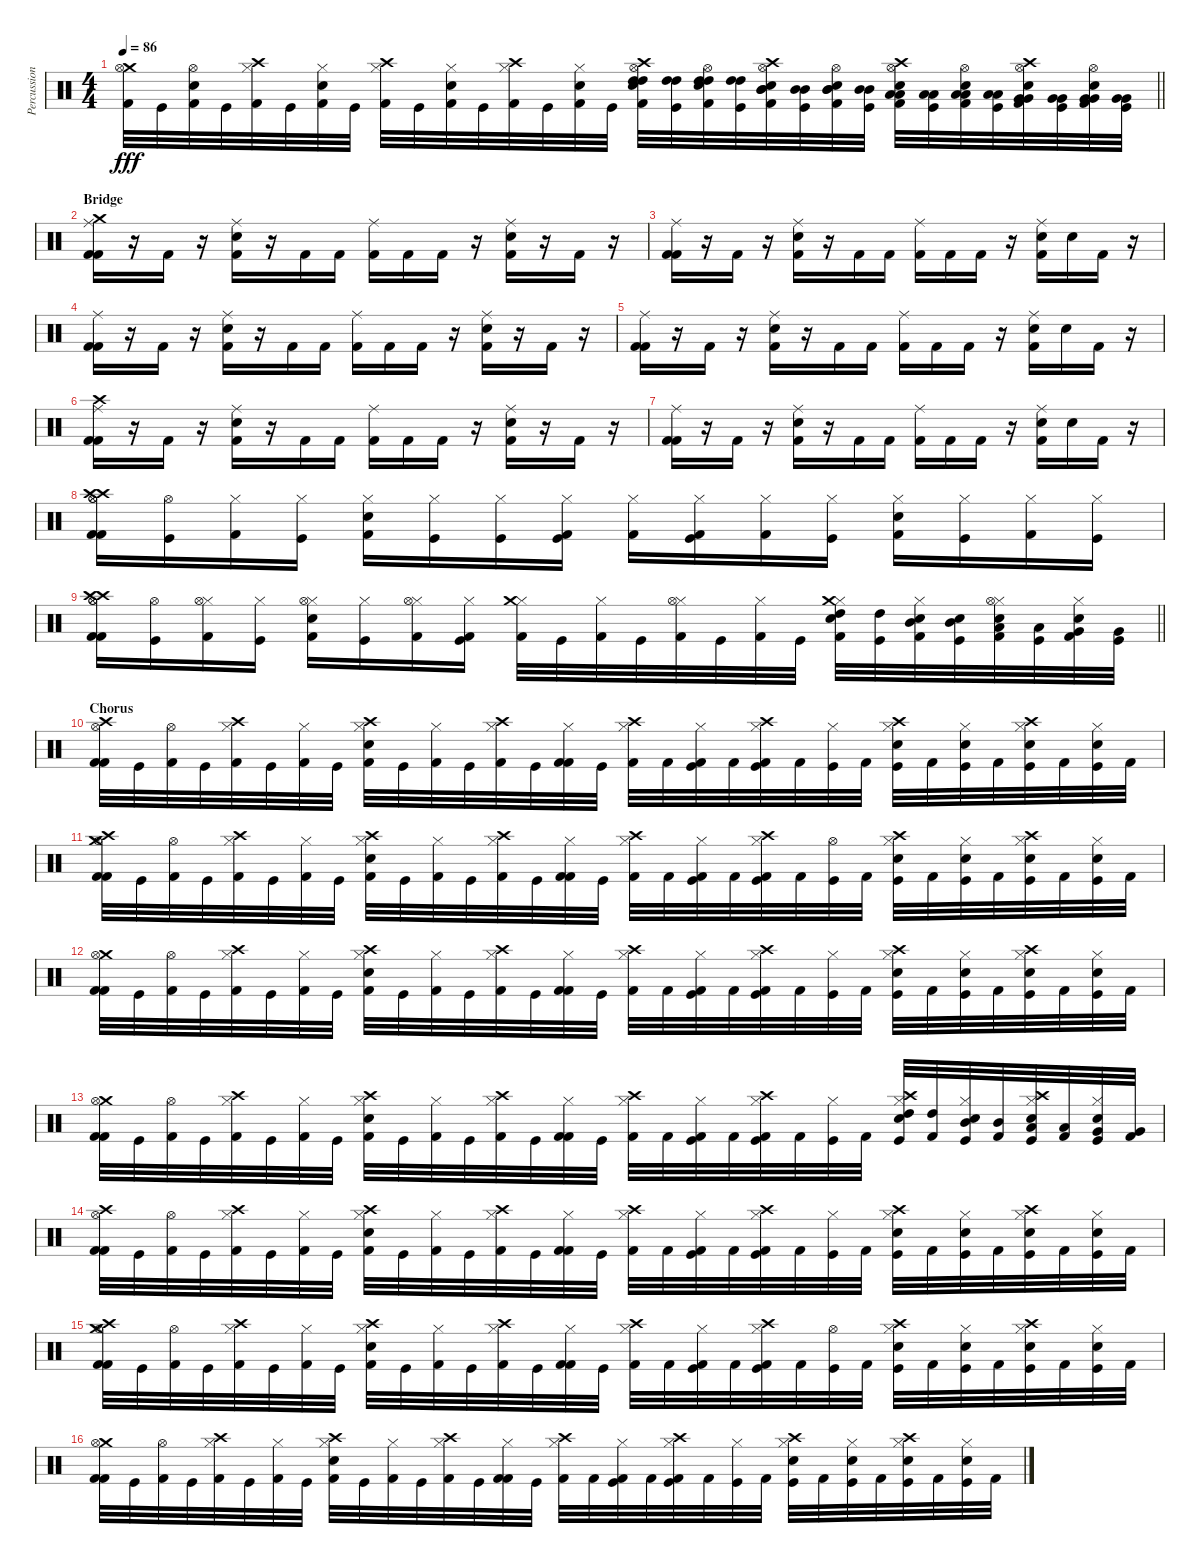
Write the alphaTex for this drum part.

\track ("Percussion" "Percussion") {instrument percussion}
\staff {score}
\articulation defaults
\ts (4 4)
\tempo 86
\clef neutral
\barLineRight lightlight
\ks c
("Crash medium (hit)" "Hi-Hat (open)" "Kick (hit) 2").32{dy fff} "Kick (hit)".32 ("Hi-Hat (open)" "Electric Snare (hit)" "Kick (hit) 2").32 "Kick (hit)".32 ("Crash high (hit)" "Hi-Hat (closed)" "Kick (hit) 2").32 "Kick (hit)".32 ("Hi-Hat (closed)" "Electric Snare (hit)" "Kick (hit) 2").32 "Kick (hit)".32 ("Crash high (hit)" "Hi-Hat (closed)" "Kick (hit) 2").32 "Kick (hit)".32 ("Hi-Hat (closed)" "Electric Snare (hit)" "Kick (hit) 2").32 "Kick (hit)".32 ("Crash high (hit)" "Hi-Hat (closed)" "Kick (hit) 2").32 "Kick (hit)".32 ("Hi-Hat (closed)" "Electric Snare (hit)" "Kick (hit) 2").32 "Kick (hit)".32 ("Crash high (hit)" "Hi-Hat (open)" "High Tom (hit)" "High Tom (hit)" "Electric Snare (hit)" "Kick (hit) 2").32 ("High Tom (hit)" "High Tom (hit)" "Kick (hit)").32 ("Hi-Hat (open)" "High Tom (hit)" "High Tom (hit)" "Electric Snare (hit)" "Kick (hit) 2").32 ("High Tom (hit)" "High Tom (hit)" "Kick (hit)").32 ("Crash high (hit)" "Hi-Hat (open)" "Mid Tom (hit)" "Mid Tom (hit)" "Electric Snare (hit)" "Kick (hit) 2").32 ("Mid Tom (hit)" "Mid Tom (hit)" "Kick (hit)").32 ("Hi-Hat (open)" "Mid Tom (hit)" "Mid Tom (hit)" "Electric Snare (hit)" "Kick (hit) 2").32 ("Mid Tom (hit)" "Mid Tom (hit)" "Kick (hit)").32 ("Crash high (hit)" "Hi-Hat (open)" "Low Tom (hit)" "Low Tom (hit)" "Electric Snare (hit)" "Kick (hit) 2").32 ("Low Tom (hit)" "Low Tom (hit)" "Kick (hit)").32 ("Hi-Hat (open)" "Low Tom (hit)" "Low Tom (hit)" "Electric Snare (hit)" "Kick (hit) 2").32 ("Low Tom (hit)" "Low Tom (hit)" "Kick (hit)").32 ("Crash high (hit)" "Hi-Hat (open)" "Very Low Tom (hit)" "Very Low Tom (hit)" "Electric Snare (hit)" "Kick (hit) 2").32 ("Very Low Tom (hit)" "Very Low Tom (hit)" "Kick (hit)").32 ("Hi-Hat (open)" "Very Low Tom (hit)" "Very Low Tom (hit)" "Electric Snare (hit)" "Kick (hit) 2").32 ("Very Low Tom (hit)" "Very Low Tom (hit)" "Kick (hit)").32 |
\section ("" "Bridge")
("Crash medium (hit)" "Ride (middle)" "Kick (hit) 2" "Kick (hit) 2").16 r.16 "Kick (hit) 2".16 r.16 ("Ride (middle)" "Electric Snare (hit)" "Kick (hit) 2").16 r.16 "Kick (hit) 2".16 "Kick (hit) 2".16 ("Ride (middle)" "Kick (hit) 2").16 "Kick (hit) 2".16 "Kick (hit) 2".16 r.16 ("Ride (middle)" "Electric Snare (hit)" "Kick (hit) 2").16 r.16 "Kick (hit) 2".16 r.16 |
("Ride (middle)" "Kick (hit) 2" "Kick (hit) 2").16 r.16 "Kick (hit) 2".16 r.16 ("Ride (middle)" "Electric Snare (hit)" "Kick (hit) 2").16 r.16 "Kick (hit) 2".16 "Kick (hit) 2".16 ("Ride (middle)" "Kick (hit) 2").16 "Kick (hit) 2".16 "Kick (hit) 2".16 r.16 ("Ride (middle)" "Electric Snare (hit)" "Kick (hit) 2").16 "Electric Snare (hit)".16 "Kick (hit) 2".16 r.16 |
("Ride (middle)" "Kick (hit) 2" "Kick (hit) 2").16 r.16 "Kick (hit) 2".16 r.16 ("Ride (middle)" "Electric Snare (hit)" "Kick (hit) 2").16 r.16 "Kick (hit) 2".16 "Kick (hit) 2".16 ("Ride (middle)" "Kick (hit) 2").16 "Kick (hit) 2".16 "Kick (hit) 2".16 r.16 ("Ride (middle)" "Electric Snare (hit)" "Kick (hit) 2").16 r.16 "Kick (hit) 2".16 r.16 |
("Ride (middle)" "Kick (hit) 2" "Kick (hit) 2").16 r.16 "Kick (hit) 2".16 r.16 ("Ride (middle)" "Electric Snare (hit)" "Kick (hit) 2").16 r.16 "Kick (hit) 2".16 "Kick (hit) 2".16 ("Ride (middle)" "Kick (hit) 2").16 "Kick (hit) 2".16 "Kick (hit) 2".16 r.16 ("Ride (middle)" "Electric Snare (hit)" "Kick (hit) 2").16 "Electric Snare (hit)".16 "Kick (hit) 2".16 r.16 |
("Crash high (hit)" "Ride (middle)" "Kick (hit) 2" "Kick (hit) 2").16 r.16 "Kick (hit) 2".16 r.16 ("Ride (middle)" "Electric Snare (hit)" "Kick (hit) 2").16 r.16 "Kick (hit) 2".16 "Kick (hit) 2".16 ("Ride (middle)" "Kick (hit) 2").16 "Kick (hit) 2".16 "Kick (hit) 2".16 r.16 ("Ride (middle)" "Electric Snare (hit)" "Kick (hit) 2").16 r.16 "Kick (hit) 2".16 r.16 |
("Ride (middle)" "Kick (hit) 2" "Kick (hit) 2").16 r.16 "Kick (hit) 2".16 r.16 ("Ride (middle)" "Electric Snare (hit)" "Kick (hit) 2").16 r.16 "Kick (hit) 2".16 "Kick (hit) 2".16 ("Ride (middle)" "Kick (hit) 2").16 "Kick (hit) 2".16 "Kick (hit) 2".16 r.16 ("Ride (middle)" "Electric Snare (hit)" "Kick (hit) 2").16 "Electric Snare (hit)".16 "Kick (hit) 2".16 r.16 |
("Hi-Hat (open)" "Hi-Hat (open)" "Crash high (hit)" "Crash high (hit)" "Kick (hit) 2" "Kick (hit) 2").16 ("Hi-Hat (open)" "Kick (hit)").16 ("Hi-Hat (closed)" "Kick (hit) 2").16 ("Hi-Hat (closed)" "Kick (hit)").16 ("Hi-Hat (closed)" "Electric Snare (hit)" "Kick (hit) 2").16 ("Hi-Hat (closed)" "Kick (hit)").16 ("Hi-Hat (closed)" "Kick (hit)").16 ("Hi-Hat (closed)" "Kick (hit) 2" "Kick (hit)").16 ("Hi-Hat (closed)" "Kick (hit) 2").16 ("Hi-Hat (closed)" "Kick (hit) 2" "Kick (hit)").16 ("Hi-Hat (closed)" "Kick (hit) 2").16 ("Hi-Hat (closed)" "Kick (hit)").16 ("Hi-Hat (closed)" "Electric Snare (hit)" "Kick (hit) 2").16 ("Hi-Hat (closed)" "Kick (hit)").16 ("Hi-Hat (closed)" "Kick (hit) 2").16 ("Hi-Hat (closed)" "Kick (hit)").16 |
\barLineRight lightlight
("Hi-Hat (open)" "Hi-Hat (open)" "Crash high (hit)" "Crash high (hit)" "Kick (hit) 2" "Kick (hit) 2").16 ("Hi-Hat (open)" "Kick (hit)").16 ("Hi-Hat (closed)" "Hi-Hat (open)" "Kick (hit) 2").16 ("Hi-Hat (closed)" "Kick (hit)").16 ("Hi-Hat (closed)" "Hi-Hat (open)" "Electric Snare (hit)" "Kick (hit) 2").16 ("Hi-Hat (closed)" "Kick (hit)").16 ("Hi-Hat (closed)" "Hi-Hat (open)" "Kick (hit) 2").16 ("Hi-Hat (closed)" "Kick (hit) 2" "Kick (hit)").16 ("Hi-Hat (closed)" "Crash medium (hit)" "Kick (hit) 2").32 "Kick (hit)".32 ("Hi-Hat (closed)" "Kick (hit) 2").32 "Kick (hit)".32 ("Hi-Hat (closed)" "Hi-Hat (open)" "Kick (hit) 2").32 "Kick (hit)".32 ("Hi-Hat (closed)" "Kick (hit) 2").32 "Kick (hit)".32 ("Hi-Hat (closed)" "Crash medium (hit)" "Electric Snare (hit)" "High Tom (hit)" "Kick (hit) 2").32 ("High Tom (hit)" "Kick (hit)").32 ("Hi-Hat (closed)" "Electric Snare (hit)" "Mid Tom (hit)" "Kick (hit) 2").32 ("Snare (hit)" "Mid Tom (hit)" "Kick (hit)").32 ("Hi-Hat (closed)" "Hi-Hat (open)" "Electric Snare (hit)" "Low Tom (hit)" "Kick (hit) 2").32 ("Low Tom (hit)" "Kick (hit)").32 ("Hi-Hat (closed)" "Electric Snare (hit)" "Very Low Tom (hit)" "Kick (hit) 2").32 ("Very Low Tom (hit)" "Kick (hit)").32 |
\section ("" "Chorus")
("Crash high (hit)" "Hi-Hat (open)" "Kick (hit) 2" "Kick (hit) 2").32 "Kick (hit)".32 ("Hi-Hat (open)" "Kick (hit) 2").32 "Kick (hit)".32 ("Crash high (hit)" "Hi-Hat (closed)" "Kick (hit) 2").32 "Kick (hit)".32 ("Hi-Hat (closed)" "Kick (hit) 2").32 "Kick (hit)".32 ("Crash high (hit)" "Hi-Hat (closed)" "Electric Snare (hit)" "Kick (hit) 2").32 "Kick (hit)".32 ("Hi-Hat (closed)" "Kick (hit) 2").32 "Kick (hit)".32 ("Crash high (hit)" "Hi-Hat (closed)" "Kick (hit) 2").32 "Kick (hit)".32 ("Hi-Hat (closed)" "Kick (hit) 2" "Kick (hit) 2").32 "Kick (hit)".32 ("Crash high (hit)" "Hi-Hat (closed)" "Kick (hit) 2").32 "Kick (hit) 2".32 ("Hi-Hat (closed)" "Kick (hit) 2" "Kick (hit)").32 "Kick (hit) 2".32 ("Crash high (hit)" "Hi-Hat (closed)" "Kick (hit) 2" "Kick (hit)").32 "Kick (hit) 2".32 ("Hi-Hat (closed)" "Kick (hit)").32 "Kick (hit) 2".32 ("Crash high (hit)" "Hi-Hat (closed)" "Electric Snare (hit)" "Kick (hit)").32 "Kick (hit) 2".32 ("Hi-Hat (closed)" "Electric Snare (hit)" "Kick (hit)").32 "Kick (hit) 2".32 ("Crash high (hit)" "Hi-Hat (closed)" "Electric Snare (hit)" "Kick (hit)").32 "Kick (hit) 2".32 ("Hi-Hat (closed)" "Electric Snare (hit)" "Kick (hit)").32 "Kick (hit) 2".32 |
("Crash medium (hit)" "Hi-Hat (open)" "Crash high (hit)" "Kick (hit) 2" "Kick (hit) 2").32 "Kick (hit)".32 ("Hi-Hat (open)" "Kick (hit) 2").32 "Kick (hit)".32 ("Crash high (hit)" "Hi-Hat (closed)" "Kick (hit) 2").32 "Kick (hit)".32 ("Hi-Hat (closed)" "Kick (hit) 2").32 "Kick (hit)".32 ("Crash high (hit)" "Hi-Hat (closed)" "Electric Snare (hit)" "Kick (hit) 2").32 "Kick (hit)".32 ("Hi-Hat (closed)" "Kick (hit) 2").32 "Kick (hit)".32 ("Crash high (hit)" "Hi-Hat (closed)" "Kick (hit) 2").32 "Kick (hit)".32 ("Hi-Hat (closed)" "Kick (hit) 2" "Kick (hit) 2").32 "Kick (hit)".32 ("Crash high (hit)" "Hi-Hat (closed)" "Kick (hit) 2").32 "Kick (hit) 2".32 ("Hi-Hat (closed)" "Kick (hit) 2" "Kick (hit)").32 "Kick (hit) 2".32 ("Crash high (hit)" "Hi-Hat (closed)" "Kick (hit) 2" "Kick (hit)").32 "Kick (hit) 2".32 ("Hi-Hat (open)" "Kick (hit)").32 "Kick (hit) 2".32 ("Crash high (hit)" "Hi-Hat (closed)" "Electric Snare (hit)" "Kick (hit)").32 "Kick (hit) 2".32 ("Hi-Hat (closed)" "Electric Snare (hit)" "Kick (hit)").32 "Kick (hit) 2".32 ("Crash high (hit)" "Hi-Hat (closed)" "Electric Snare (hit)" "Kick (hit)").32 "Kick (hit) 2".32 ("Hi-Hat (closed)" "Electric Snare (hit)" "Kick (hit)").32 "Kick (hit) 2".32 |
("Crash medium (hit)" "Hi-Hat (open)" "Kick (hit) 2" "Kick (hit) 2").32 "Kick (hit)".32 ("Hi-Hat (open)" "Kick (hit) 2").32 "Kick (hit)".32 ("Crash high (hit)" "Hi-Hat (closed)" "Kick (hit) 2").32 "Kick (hit)".32 ("Hi-Hat (closed)" "Kick (hit) 2").32 "Kick (hit)".32 ("Crash high (hit)" "Hi-Hat (closed)" "Electric Snare (hit)" "Kick (hit) 2").32 "Kick (hit)".32 ("Hi-Hat (closed)" "Kick (hit) 2").32 "Kick (hit)".32 ("Crash high (hit)" "Hi-Hat (closed)" "Kick (hit) 2").32 "Kick (hit)".32 ("Hi-Hat (closed)" "Kick (hit) 2" "Kick (hit) 2").32 "Kick (hit)".32 ("Crash high (hit)" "Hi-Hat (closed)" "Kick (hit) 2").32 "Kick (hit) 2".32 ("Hi-Hat (closed)" "Kick (hit) 2" "Kick (hit)").32 "Kick (hit) 2".32 ("Crash high (hit)" "Hi-Hat (closed)" "Kick (hit) 2" "Kick (hit)").32 "Kick (hit) 2".32 ("Hi-Hat (closed)" "Kick (hit)").32 "Kick (hit) 2".32 ("Crash high (hit)" "Hi-Hat (closed)" "Electric Snare (hit)" "Kick (hit)").32 "Kick (hit) 2".32 ("Hi-Hat (closed)" "Electric Snare (hit)" "Kick (hit)").32 "Kick (hit) 2".32 ("Crash high (hit)" "Hi-Hat (closed)" "Electric Snare (hit)" "Kick (hit)").32 "Kick (hit) 2".32 ("Hi-Hat (closed)" "Electric Snare (hit)" "Kick (hit)").32 "Kick (hit) 2".32 |
("Crash medium (hit)" "Hi-Hat (open)" "Kick (hit) 2" "Kick (hit) 2").32 "Kick (hit)".32 ("Hi-Hat (open)" "Kick (hit) 2").32 "Kick (hit)".32 ("Crash high (hit)" "Hi-Hat (closed)" "Kick (hit) 2").32 "Kick (hit)".32 ("Hi-Hat (closed)" "Kick (hit) 2").32 "Kick (hit)".32 ("Crash high (hit)" "Hi-Hat (closed)" "Electric Snare (hit)" "Kick (hit) 2").32 "Kick (hit)".32 ("Hi-Hat (closed)" "Kick (hit) 2").32 "Kick (hit)".32 ("Crash high (hit)" "Hi-Hat (closed)" "Kick (hit) 2").32 "Kick (hit)".32 ("Hi-Hat (closed)" "Kick (hit) 2" "Kick (hit) 2").32 "Kick (hit)".32 ("Crash high (hit)" "Hi-Hat (closed)" "Kick (hit) 2").32 "Kick (hit) 2".32 ("Hi-Hat (closed)" "Kick (hit) 2" "Kick (hit)").32 "Kick (hit) 2".32 ("Crash high (hit)" "Hi-Hat (closed)" "Kick (hit) 2" "Kick (hit)").32 "Kick (hit) 2".32 ("Hi-Hat (closed)" "Kick (hit)").32 "Kick (hit) 2".32 ("Crash high (hit)" "Hi-Hat (closed)" "High Tom (hit)" "Electric Snare (hit)" "Kick (hit)").32 ("High Tom (hit)" "Kick (hit) 2").32 ("Hi-Hat (closed)" "Mid Tom (hit)" "Electric Snare (hit)" "Kick (hit)").32 ("Mid Tom (hit)" "Kick (hit) 2").32 ("Crash high (hit)" "Hi-Hat (closed)" "Low Tom (hit)" "Electric Snare (hit)" "Kick (hit)").32 ("Low Tom (hit)" "Kick (hit) 2").32 ("Hi-Hat (closed)" "Very Low Tom (hit)" "Electric Snare (hit)" "Kick (hit)").32 ("Very Low Tom (hit)" "Kick (hit) 2").32 |
("Crash high (hit)" "Hi-Hat (open)" "Kick (hit) 2" "Kick (hit) 2").32 "Kick (hit)".32 ("Hi-Hat (open)" "Kick (hit) 2").32 "Kick (hit)".32 ("Crash high (hit)" "Hi-Hat (closed)" "Kick (hit) 2").32 "Kick (hit)".32 ("Hi-Hat (closed)" "Kick (hit) 2").32 "Kick (hit)".32 ("Crash high (hit)" "Hi-Hat (closed)" "Electric Snare (hit)" "Kick (hit) 2").32 "Kick (hit)".32 ("Hi-Hat (closed)" "Kick (hit) 2").32 "Kick (hit)".32 ("Crash high (hit)" "Hi-Hat (closed)" "Kick (hit) 2").32 "Kick (hit)".32 ("Hi-Hat (closed)" "Kick (hit) 2" "Kick (hit) 2").32 "Kick (hit)".32 ("Crash high (hit)" "Hi-Hat (closed)" "Kick (hit) 2").32 "Kick (hit) 2".32 ("Hi-Hat (closed)" "Kick (hit) 2" "Kick (hit)").32 "Kick (hit) 2".32 ("Crash high (hit)" "Hi-Hat (closed)" "Kick (hit) 2" "Kick (hit)").32 "Kick (hit) 2".32 ("Hi-Hat (closed)" "Kick (hit)").32 "Kick (hit) 2".32 ("Crash high (hit)" "Hi-Hat (closed)" "Electric Snare (hit)" "Kick (hit)").32 "Kick (hit) 2".32 ("Hi-Hat (closed)" "Electric Snare (hit)" "Kick (hit)").32 "Kick (hit) 2".32 ("Crash high (hit)" "Hi-Hat (closed)" "Electric Snare (hit)" "Kick (hit)").32 "Kick (hit) 2".32 ("Hi-Hat (closed)" "Electric Snare (hit)" "Kick (hit)").32 "Kick (hit) 2".32 |
("Crash medium (hit)" "Hi-Hat (open)" "Crash high (hit)" "Kick (hit) 2" "Kick (hit) 2").32 "Kick (hit)".32 ("Hi-Hat (open)" "Kick (hit) 2").32 "Kick (hit)".32 ("Crash high (hit)" "Hi-Hat (closed)" "Kick (hit) 2").32 "Kick (hit)".32 ("Hi-Hat (closed)" "Kick (hit) 2").32 "Kick (hit)".32 ("Crash high (hit)" "Hi-Hat (closed)" "Electric Snare (hit)" "Kick (hit) 2").32 "Kick (hit)".32 ("Hi-Hat (closed)" "Kick (hit) 2").32 "Kick (hit)".32 ("Crash high (hit)" "Hi-Hat (closed)" "Kick (hit) 2").32 "Kick (hit)".32 ("Hi-Hat (closed)" "Kick (hit) 2" "Kick (hit) 2").32 "Kick (hit)".32 ("Crash high (hit)" "Hi-Hat (closed)" "Kick (hit) 2").32 "Kick (hit) 2".32 ("Hi-Hat (closed)" "Kick (hit) 2" "Kick (hit)").32 "Kick (hit) 2".32 ("Crash high (hit)" "Hi-Hat (closed)" "Kick (hit) 2" "Kick (hit)").32 "Kick (hit) 2".32 ("Hi-Hat (open)" "Kick (hit)").32 "Kick (hit) 2".32 ("Crash high (hit)" "Hi-Hat (closed)" "Electric Snare (hit)" "Kick (hit)").32 "Kick (hit) 2".32 ("Hi-Hat (closed)" "Electric Snare (hit)" "Kick (hit)").32 "Kick (hit) 2".32 ("Crash high (hit)" "Hi-Hat (closed)" "Electric Snare (hit)" "Kick (hit)").32 "Kick (hit) 2".32 ("Hi-Hat (closed)" "Electric Snare (hit)" "Kick (hit)").32 "Kick (hit) 2".32 |
("Crash medium (hit)" "Hi-Hat (open)" "Kick (hit) 2" "Kick (hit) 2").32 "Kick (hit)".32 ("Hi-Hat (open)" "Kick (hit) 2").32 "Kick (hit)".32 ("Crash high (hit)" "Hi-Hat (closed)" "Kick (hit) 2").32 "Kick (hit)".32 ("Hi-Hat (closed)" "Kick (hit) 2").32 "Kick (hit)".32 ("Crash high (hit)" "Hi-Hat (closed)" "Electric Snare (hit)" "Kick (hit) 2").32 "Kick (hit)".32 ("Hi-Hat (closed)" "Kick (hit) 2").32 "Kick (hit)".32 ("Crash high (hit)" "Hi-Hat (closed)" "Kick (hit) 2").32 "Kick (hit)".32 ("Hi-Hat (closed)" "Kick (hit) 2" "Kick (hit) 2").32 "Kick (hit)".32 ("Crash high (hit)" "Hi-Hat (closed)" "Kick (hit) 2").32 "Kick (hit) 2".32 ("Hi-Hat (closed)" "Kick (hit) 2" "Kick (hit)").32 "Kick (hit) 2".32 ("Crash high (hit)" "Hi-Hat (closed)" "Kick (hit) 2" "Kick (hit)").32 "Kick (hit) 2".32 ("Hi-Hat (closed)" "Kick (hit)").32 "Kick (hit) 2".32 ("Crash high (hit)" "Hi-Hat (closed)" "Electric Snare (hit)" "Kick (hit)").32 "Kick (hit) 2".32 ("Hi-Hat (closed)" "Electric Snare (hit)" "Kick (hit)").32 "Kick (hit) 2".32 ("Crash high (hit)" "Hi-Hat (closed)" "Electric Snare (hit)" "Kick (hit)").32 "Kick (hit) 2".32 ("Hi-Hat (closed)" "Electric Snare (hit)" "Kick (hit)").32 "Kick (hit) 2".32
